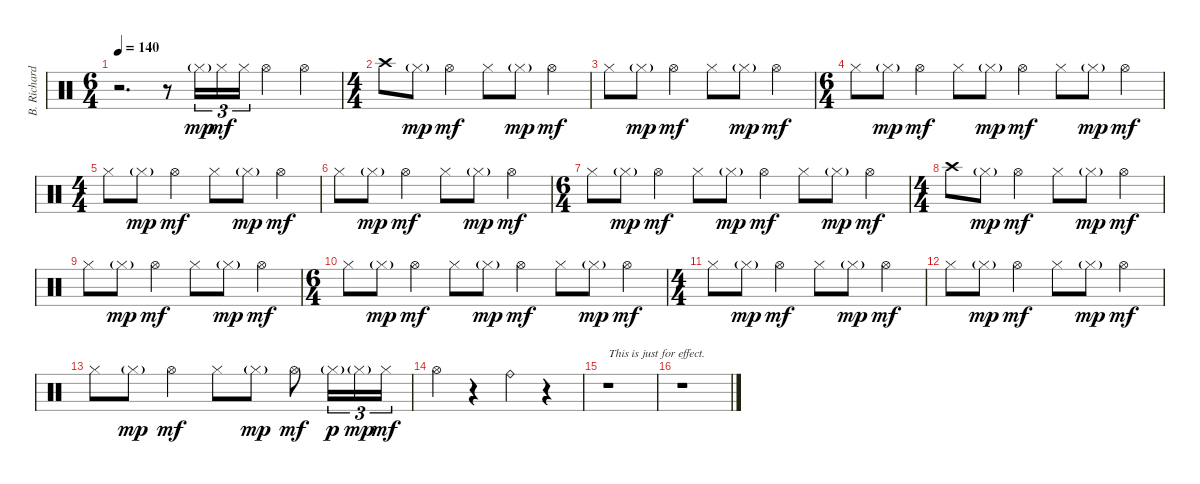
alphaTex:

\track ("B. Richardson Drums" "B. Richard") {instrument percussion}
\staff {score}
\articulation defaults
\ts (6 4)
\tempo 140
\clef neutral
\ks c
r.2{d dy mf} r.8 "Hi-Hat (closed)"{g}.16{tu (3 2) dy mp} "Hi-Hat (closed)".16{tu (3 2) dy mf} "Hi-Hat (closed)".16{tu (3 2)} "Hi-Hat (open)".4 "Hi-Hat (open)".4 |
\ts (4 4)
"Crash high (hit)".8 "Hi-Hat (closed)"{g}.8{dy mp} "Hi-Hat (open)".4{dy mf} "Hi-Hat (closed)".8 "Hi-Hat (closed)"{g}.8{dy mp} "Hi-Hat (open)".4{dy mf} |
"Hi-Hat (closed)".8 "Hi-Hat (closed)"{g}.8{dy mp} "Hi-Hat (open)".4{dy mf} "Hi-Hat (closed)".8 "Hi-Hat (closed)"{g}.8{dy mp} "Hi-Hat (open)".4{dy mf} |
\ts (6 4)
"Hi-Hat (closed)".8 "Hi-Hat (closed)"{g}.8{dy mp} "Hi-Hat (open)".4{dy mf} "Hi-Hat (closed)".8 "Hi-Hat (closed)"{g}.8{dy mp} "Hi-Hat (open)".4{dy mf} "Hi-Hat (closed)".8 "Hi-Hat (closed)"{g}.8{dy mp} "Hi-Hat (open)".4{dy mf} |
\ts (4 4)
"Hi-Hat (closed)".8 "Hi-Hat (closed)"{g}.8{dy mp} "Hi-Hat (open)".4{dy mf} "Hi-Hat (closed)".8 "Hi-Hat (closed)"{g}.8{dy mp} "Hi-Hat (open)".4{dy mf} |
"Hi-Hat (closed)".8 "Hi-Hat (closed)"{g}.8{dy mp} "Hi-Hat (open)".4{dy mf} "Hi-Hat (closed)".8 "Hi-Hat (closed)"{g}.8{dy mp} "Hi-Hat (open)".4{dy mf} |
\ts (6 4)
"Hi-Hat (closed)".8 "Hi-Hat (closed)"{g}.8{dy mp} "Hi-Hat (open)".4{dy mf} "Hi-Hat (closed)".8 "Hi-Hat (closed)"{g}.8{dy mp} "Hi-Hat (open)".4{dy mf} "Hi-Hat (closed)".8 "Hi-Hat (closed)"{g}.8{dy mp} "Hi-Hat (open)".4{dy mf} |
\ts (4 4)
"Crash high (hit)".8 "Hi-Hat (closed)"{g}.8{dy mp} "Hi-Hat (open)".4{dy mf} "Hi-Hat (closed)".8 "Hi-Hat (closed)"{g}.8{dy mp} "Hi-Hat (open)".4{dy mf} |
"Hi-Hat (closed)".8 "Hi-Hat (closed)"{g}.8{dy mp} "Hi-Hat (open)".4{dy mf} "Hi-Hat (closed)".8 "Hi-Hat (closed)"{g}.8{dy mp} "Hi-Hat (open)".4{dy mf} |
\ts (6 4)
"Hi-Hat (closed)".8 "Hi-Hat (closed)"{g}.8{dy mp} "Hi-Hat (open)".4{dy mf} "Hi-Hat (closed)".8 "Hi-Hat (closed)"{g}.8{dy mp} "Hi-Hat (open)".4{dy mf} "Hi-Hat (closed)".8 "Hi-Hat (closed)"{g}.8{dy mp} "Hi-Hat (open)".4{dy mf} |
\ts (4 4)
"Hi-Hat (closed)".8 "Hi-Hat (closed)"{g}.8{dy mp} "Hi-Hat (open)".4{dy mf} "Hi-Hat (closed)".8 "Hi-Hat (closed)"{g}.8{dy mp} "Hi-Hat (open)".4{dy mf} |
"Hi-Hat (closed)".8 "Hi-Hat (closed)"{g}.8{dy mp} "Hi-Hat (open)".4{dy mf} "Hi-Hat (closed)".8 "Hi-Hat (closed)"{g}.8{dy mp} "Hi-Hat (open)".4{dy mf} |
"Hi-Hat (closed)".8 "Hi-Hat (closed)"{g}.8{dy mp} "Hi-Hat (open)".4{dy mf} "Hi-Hat (closed)".8 "Hi-Hat (closed)"{g}.8{dy mp} "Hi-Hat (open)".8{dy mf} "Hi-Hat (closed)"{g}.16{tu (3 2) dy p} "Hi-Hat (closed)"{g}.16{tu (3 2) dy mp} "Hi-Hat (closed)".16{tu (3 2) dy mf} |
"Hi-Hat (open)".4 r.4 "Ride (bell)".4 r.4 |
r.1{txt "This is just for effect."} |
r.1
